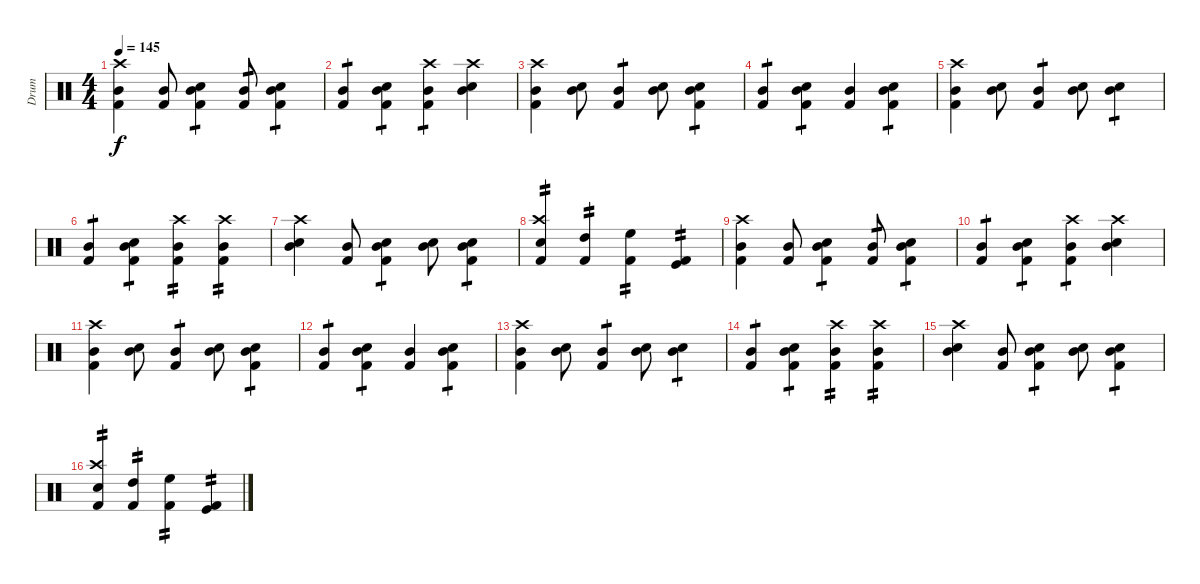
\track ("Drum" "Drum") {instrument percussion}
\staff {score}
\articulation defaults
\ts (4 4)
\tempo 145
\clef neutral
\ks c
("Mid Tom (hit)" "Kick (hit) 2" "Crash high (hit)").4{dy f} ("Mid Tom (hit)" "Kick (hit) 2").8 ("Mid Tom (hit)" "Kick (hit) 2" "Snare (hit) 2").4{tp 1} ("Mid Tom (hit)" "Kick (hit) 2").8{tp 1} ("Mid Tom (hit)" "Snare (hit) 2" "Kick (hit) 2").4{tp 1} |
("Mid Tom (hit)" "Kick (hit) 2").4{tp 1} ("Mid Tom (hit)" "Kick (hit) 2" "Snare (hit) 2").4{tp 1} ("Mid Tom (hit)" "Kick (hit) 2" "Crash high (hit)").4{tp 1} ("Mid Tom (hit)" "Snare (hit) 2" "Crash high (hit)").4 |
("Mid Tom (hit)" "Kick (hit) 2" "Crash high (hit)").4 ("Mid Tom (hit)" "Snare (hit) 2").8 ("Mid Tom (hit)" "Kick (hit) 2").4{tp 1} ("Mid Tom (hit)" "Snare (hit) 2").8 ("Mid Tom (hit)" "Snare (hit) 2" "Kick (hit) 2").4{tp 1} |
("Mid Tom (hit)" "Kick (hit) 2").4{tp 1} ("Mid Tom (hit)" "Kick (hit) 2" "Snare (hit) 2").4{tp 1} ("Mid Tom (hit)" "Kick (hit) 2").4 ("Mid Tom (hit)" "Kick (hit) 2" "Snare (hit) 2").4{tp 1} |
("Mid Tom (hit)" "Kick (hit) 2" "Crash high (hit)").4 ("Mid Tom (hit)" "Snare (hit) 2").8 ("Mid Tom (hit)" "Kick (hit) 2").4{tp 1} ("Mid Tom (hit)" "Snare (hit) 2").8 ("Mid Tom (hit)" "Snare (hit) 2").4{tp 1} |
("Mid Tom (hit)" "Kick (hit) 2").4{tp 1} ("Mid Tom (hit)" "Kick (hit) 2" "Snare (hit) 2").4{tp 1} ("Mid Tom (hit)" "Kick (hit) 2" "Crash high (hit)").4{tp 2} ("Mid Tom (hit)" "Kick (hit) 2" "Crash high (hit)").4{tp 2} |
("Mid Tom (hit)" "Snare (hit) 2" "Crash high (hit)").4 ("Mid Tom (hit)" "Kick (hit) 2").8 ("Mid Tom (hit)" "Kick (hit) 2" "Snare (hit) 2").4{tp 1} ("Mid Tom (hit)" "Snare (hit) 2").8 ("Mid Tom (hit)" "Snare (hit) 2" "Kick (hit) 2").4{tp 1} |
("Crash high (hit)" "Kick (hit) 2" "Snare (hit) 2").4{tp 2} ("High Tom (hit)" "Kick (hit) 2").4{tp 2} ("High Floor Tom (hit)" "Kick (hit) 2").4{tp 2} ("Kick (hit)" "Kick (hit) 2").4{tp 2} |
("Mid Tom (hit)" "Kick (hit) 2" "Crash high (hit)").4 ("Mid Tom (hit)" "Kick (hit) 2").8 ("Mid Tom (hit)" "Kick (hit) 2" "Snare (hit) 2").4{tp 1} ("Mid Tom (hit)" "Kick (hit) 2").8{tp 1} ("Mid Tom (hit)" "Snare (hit) 2" "Kick (hit) 2").4{tp 1} |
("Mid Tom (hit)" "Kick (hit) 2").4{tp 1} ("Mid Tom (hit)" "Kick (hit) 2" "Snare (hit) 2").4{tp 1} ("Mid Tom (hit)" "Kick (hit) 2" "Crash high (hit)").4{tp 1} ("Mid Tom (hit)" "Snare (hit) 2" "Crash high (hit)").4 |
("Mid Tom (hit)" "Kick (hit) 2" "Crash high (hit)").4 ("Mid Tom (hit)" "Snare (hit) 2").8 ("Mid Tom (hit)" "Kick (hit) 2").4{tp 1} ("Mid Tom (hit)" "Snare (hit) 2").8 ("Mid Tom (hit)" "Snare (hit) 2" "Kick (hit) 2").4{tp 1} |
("Mid Tom (hit)" "Kick (hit) 2").4{tp 1} ("Mid Tom (hit)" "Kick (hit) 2" "Snare (hit) 2").4{tp 1} ("Mid Tom (hit)" "Kick (hit) 2").4 ("Mid Tom (hit)" "Kick (hit) 2" "Snare (hit) 2").4{tp 1} |
("Mid Tom (hit)" "Kick (hit) 2" "Crash high (hit)").4 ("Mid Tom (hit)" "Snare (hit) 2").8 ("Mid Tom (hit)" "Kick (hit) 2").4{tp 1} ("Mid Tom (hit)" "Snare (hit) 2").8 ("Mid Tom (hit)" "Snare (hit) 2").4{tp 1} |
("Mid Tom (hit)" "Kick (hit) 2").4{tp 1} ("Mid Tom (hit)" "Kick (hit) 2" "Snare (hit) 2").4{tp 1} ("Mid Tom (hit)" "Kick (hit) 2" "Crash high (hit)").4{tp 2} ("Mid Tom (hit)" "Kick (hit) 2" "Crash high (hit)").4{tp 2} |
("Mid Tom (hit)" "Snare (hit) 2" "Crash high (hit)").4 ("Mid Tom (hit)" "Kick (hit) 2").8 ("Mid Tom (hit)" "Kick (hit) 2" "Snare (hit) 2").4{tp 1} ("Mid Tom (hit)" "Snare (hit) 2").8 ("Mid Tom (hit)" "Snare (hit) 2" "Kick (hit) 2").4{tp 1} |
("Crash high (hit)" "Kick (hit) 2" "Snare (hit) 2").4{tp 2} ("High Tom (hit)" "Kick (hit) 2").4{tp 2} ("High Floor Tom (hit)" "Kick (hit) 2").4{tp 2} ("Kick (hit)" "Kick (hit) 2").4{tp 2}
